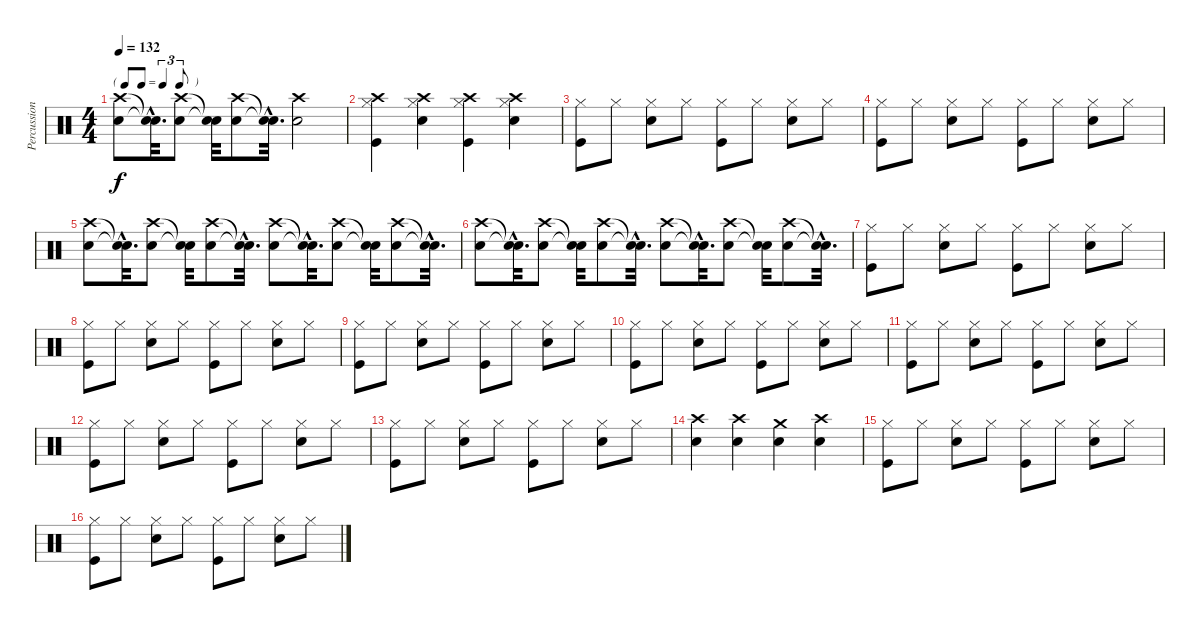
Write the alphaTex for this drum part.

\track ("Percussion" "Percussion") {instrument percussion}
\staff {score}
\articulation defaults
\ts (4 4)
\tf triplet8th
\tempo 132
\clef neutral
\ks c
("Crash high (hit)" "Snare (hit) 2").8{dy f} ("Snare (hit)"{hac t} "Snare (hit)"{hac t}).32{d} ("Crash high (hit)" "Snare (hit) 2").8 ("Snare (hit)"{t} "Snare (hit)"{t}).32 ("Crash high (hit)" "Snare (hit) 2").8 ("Snare (hit)"{hac t} "Snare (hit)"{hac t}).32{d} ("Crash high (hit)" "Snare (hit) 2").2 |
("Hi-Hat (closed)" "Crash high (hit)" "Kick (hit)").4 ("Hi-Hat (closed)" "Crash high (hit)" "Snare (hit) 2").4 ("Hi-Hat (closed)" "Crash high (hit)" "Kick (hit)").4 ("Hi-Hat (closed)" "Crash high (hit)" "Snare (hit) 2").4 |
("Hi-Hat (closed)" "Kick (hit)").8 "Hi-Hat (closed)".8 ("Hi-Hat (closed)" "Snare (hit) 2").8 "Hi-Hat (closed)".8 ("Hi-Hat (closed)" "Kick (hit)").8 "Hi-Hat (closed)".8 ("Hi-Hat (closed)" "Snare (hit) 2").8 "Hi-Hat (closed)".8 |
("Hi-Hat (closed)" "Kick (hit)").8 "Hi-Hat (closed)".8 ("Hi-Hat (closed)" "Snare (hit) 2").8 "Hi-Hat (closed)".8 ("Hi-Hat (closed)" "Kick (hit)").8 "Hi-Hat (closed)".8 ("Hi-Hat (closed)" "Snare (hit) 2").8 "Hi-Hat (closed)".8 |
("Crash high (hit)" "Snare (hit) 2").8 ("Snare (hit)"{hac t} "Snare (hit)"{hac t}).32{d} ("Crash high (hit)" "Snare (hit) 2").8 ("Snare (hit)"{t} "Snare (hit)"{t}).32 ("Crash high (hit)" "Snare (hit) 2").8 ("Snare (hit)"{hac t} "Snare (hit)"{hac t}).32{d} ("Crash high (hit)" "Snare (hit) 2").8 ("Snare (hit)"{hac t} "Snare (hit)"{hac t}).32{d} ("Crash high (hit)" "Snare (hit) 2").8 ("Snare (hit)"{t} "Snare (hit)"{t}).32 ("Crash high (hit)" "Snare (hit) 2").8 ("Snare (hit)"{hac t} "Snare (hit)"{hac t}).32{d} |
("Crash high (hit)" "Snare (hit) 2").8 ("Snare (hit)"{hac t} "Snare (hit)"{hac t}).32{d} ("Crash high (hit)" "Snare (hit) 2").8 ("Snare (hit)"{t} "Snare (hit)"{t}).32 ("Crash high (hit)" "Snare (hit) 2").8 ("Snare (hit)"{hac t} "Snare (hit)"{hac t}).32{d} ("Crash high (hit)" "Snare (hit) 2").8 ("Snare (hit)"{hac t} "Snare (hit)"{hac t}).32{d} ("Crash high (hit)" "Snare (hit) 2").8 ("Snare (hit)"{t} "Snare (hit)"{t}).32 ("Crash high (hit)" "Snare (hit) 2").8 ("Snare (hit)"{hac t} "Snare (hit)"{hac t}).32{d} |
("Hi-Hat (closed)" "Kick (hit)").8 "Hi-Hat (closed)".8 ("Hi-Hat (closed)" "Snare (hit) 2").8 "Hi-Hat (closed)".8 ("Hi-Hat (closed)" "Kick (hit)").8 "Hi-Hat (closed)".8 ("Hi-Hat (closed)" "Snare (hit) 2").8 "Hi-Hat (closed)".8 |
("Hi-Hat (closed)" "Kick (hit)").8 "Hi-Hat (closed)".8 ("Hi-Hat (closed)" "Snare (hit) 2").8 "Hi-Hat (closed)".8 ("Hi-Hat (closed)" "Kick (hit)").8 "Hi-Hat (closed)".8 ("Hi-Hat (closed)" "Snare (hit) 2").8 "Hi-Hat (closed)".8 |
("Hi-Hat (closed)" "Kick (hit)").8 "Hi-Hat (closed)".8 ("Hi-Hat (closed)" "Snare (hit) 2").8 "Hi-Hat (closed)".8 ("Hi-Hat (closed)" "Kick (hit)").8 "Hi-Hat (closed)".8 ("Hi-Hat (closed)" "Snare (hit) 2").8 "Hi-Hat (closed)".8 |
("Hi-Hat (closed)" "Kick (hit)").8 "Hi-Hat (closed)".8 ("Hi-Hat (closed)" "Snare (hit) 2").8 "Hi-Hat (closed)".8 ("Hi-Hat (closed)" "Kick (hit)").8 "Hi-Hat (closed)".8 ("Hi-Hat (closed)" "Snare (hit) 2").8 "Hi-Hat (closed)".8 |
("Hi-Hat (closed)" "Kick (hit)").8 "Hi-Hat (closed)".8 ("Hi-Hat (closed)" "Snare (hit) 2").8 "Hi-Hat (closed)".8 ("Hi-Hat (closed)" "Kick (hit)").8 "Hi-Hat (closed)".8 ("Hi-Hat (closed)" "Snare (hit) 2").8 "Hi-Hat (closed)".8 |
("Hi-Hat (closed)" "Kick (hit)").8 "Hi-Hat (closed)".8 ("Hi-Hat (closed)" "Snare (hit) 2").8 "Hi-Hat (closed)".8 ("Hi-Hat (closed)" "Kick (hit)").8 "Hi-Hat (closed)".8 ("Hi-Hat (closed)" "Snare (hit) 2").8 "Hi-Hat (closed)".8 |
("Hi-Hat (closed)" "Kick (hit)").8 "Hi-Hat (closed)".8 ("Hi-Hat (closed)" "Snare (hit) 2").8 "Hi-Hat (closed)".8 ("Hi-Hat (closed)" "Kick (hit)").8 "Hi-Hat (closed)".8 ("Hi-Hat (closed)" "Snare (hit) 2").8 "Hi-Hat (closed)".8 |
("Crash high (hit)" "Snare (hit) 2").4 ("Crash high (hit)" "Snare (hit) 2").4 ("Crash medium (hit)" "Snare (hit) 2").4 ("Crash high (hit)" "Snare (hit) 2").4 |
("Hi-Hat (closed)" "Kick (hit)").8 "Hi-Hat (closed)".8 ("Hi-Hat (closed)" "Snare (hit) 2").8 "Hi-Hat (closed)".8 ("Hi-Hat (closed)" "Kick (hit)").8 "Hi-Hat (closed)".8 ("Hi-Hat (closed)" "Snare (hit) 2").8 "Hi-Hat (closed)".8 |
("Hi-Hat (closed)" "Kick (hit)").8 "Hi-Hat (closed)".8 ("Hi-Hat (closed)" "Snare (hit) 2").8 "Hi-Hat (closed)".8 ("Hi-Hat (closed)" "Kick (hit)").8 "Hi-Hat (closed)".8 ("Hi-Hat (closed)" "Snare (hit) 2").8 "Hi-Hat (closed)".8
